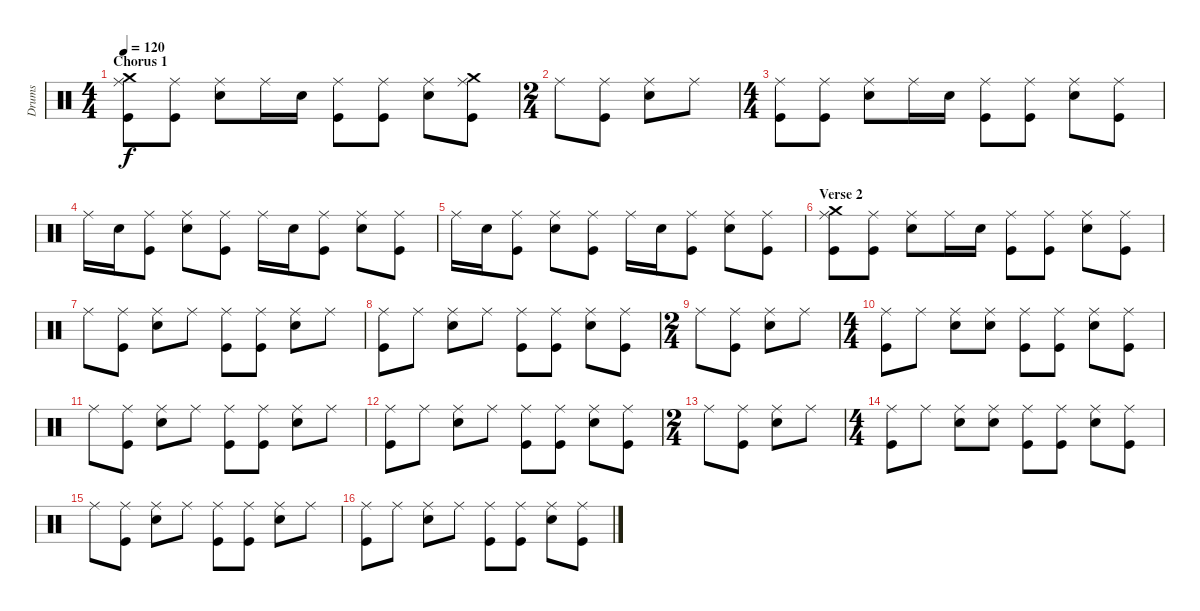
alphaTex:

\track ("Drums" "Drums") {instrument percussion}
\staff {score}
\articulation defaults
\ts (4 4)
\section ("" "Chorus 1")
\tempo 120
\clef neutral
\ks c
("Ride (middle)" "Crash medium (hit)" "Kick (hit)").8{dy f} ("Ride (middle)" "Kick (hit)").8 ("Ride (middle)" "Snare (hit) 2").8 "Ride (middle)".16 "Snare (hit) 2".16 ("Ride (middle)" "Kick (hit)").8 ("Ride (middle)" "Kick (hit)").8 ("Ride (middle)" "Snare (hit) 2").8 ("Ride (middle)" "Crash medium (hit)" "Kick (hit)").8 |
\ts (2 4)
"Ride (middle)".8 ("Ride (middle)" "Kick (hit)").8 ("Ride (middle)" "Snare (hit) 2").8 "Ride (middle)".8 |
\ts (4 4)
("Ride (middle)" "Kick (hit)").8 ("Ride (middle)" "Kick (hit)").8 ("Ride (middle)" "Snare (hit) 2").8 "Ride (middle)".16 "Snare (hit) 2".16 ("Ride (middle)" "Kick (hit)").8 ("Ride (middle)" "Kick (hit)").8 ("Ride (middle)" "Snare (hit) 2").8 ("Ride (middle)" "Kick (hit)").8 |
"Ride (middle)".16 "Snare (hit) 2".16 ("Ride (middle)" "Kick (hit)").8 ("Ride (middle)" "Snare (hit) 2").8 ("Ride (middle)" "Kick (hit)").8 "Ride (middle)".16 "Snare (hit) 2".16 ("Ride (middle)" "Kick (hit)").8 ("Ride (middle)" "Snare (hit) 2").8 ("Ride (middle)" "Kick (hit)").8 |
"Ride (middle)".16 "Snare (hit) 2".16 ("Ride (middle)" "Kick (hit)").8 ("Ride (middle)" "Snare (hit) 2").8 ("Ride (middle)" "Kick (hit)").8 "Ride (middle)".16 "Snare (hit) 2".16 ("Ride (middle)" "Kick (hit)").8 ("Ride (middle)" "Snare (hit) 2").8 ("Ride (middle)" "Kick (hit)").8 |
\section ("" "Verse 2")
("Ride (middle)" "Crash medium (hit)" "Kick (hit)").8 ("Ride (middle)" "Kick (hit)").8 ("Ride (middle)" "Snare (hit) 2").8 "Ride (middle)".16 "Snare (hit) 2".16 ("Ride (middle)" "Kick (hit)").8 ("Ride (middle)" "Kick (hit)").8 ("Ride (middle)" "Snare (hit) 2").8 ("Ride (middle)" "Kick (hit)").8 |
"Ride (middle)".8 ("Ride (middle)" "Kick (hit)").8 ("Ride (middle)" "Snare (hit) 2").8 "Ride (middle)".8 ("Ride (middle)" "Kick (hit)").8 ("Ride (middle)" "Kick (hit)").8 ("Ride (middle)" "Snare (hit) 2").8 "Ride (middle)".8 |
("Ride (middle)" "Kick (hit)").8 "Ride (middle)".8 ("Ride (middle)" "Snare (hit) 2").8 "Ride (middle)".8 ("Ride (middle)" "Kick (hit)").8 ("Ride (middle)" "Kick (hit)").8 ("Ride (middle)" "Snare (hit) 2").8 ("Ride (middle)" "Kick (hit)").8 |
\ts (2 4)
"Ride (middle)".8 ("Ride (middle)" "Kick (hit)").8 ("Ride (middle)" "Snare (hit) 2").8 "Ride (middle)".8 |
\ts (4 4)
("Ride (middle)" "Kick (hit)").8 "Ride (middle)".8 ("Ride (middle)" "Snare (hit) 2").8 ("Ride (middle)" "Snare (hit) 2").8 ("Ride (middle)" "Kick (hit)").8 ("Ride (middle)" "Kick (hit)").8 ("Ride (middle)" "Snare (hit) 2").8 ("Ride (middle)" "Kick (hit)").8 |
"Ride (middle)".8 ("Ride (middle)" "Kick (hit)").8 ("Ride (middle)" "Snare (hit) 2").8 "Ride (middle)".8 ("Ride (middle)" "Kick (hit)").8 ("Ride (middle)" "Kick (hit)").8 ("Ride (middle)" "Snare (hit) 2").8 "Ride (middle)".8 |
("Ride (middle)" "Kick (hit)").8 "Ride (middle)".8 ("Ride (middle)" "Snare (hit) 2").8 "Ride (middle)".8 ("Ride (middle)" "Kick (hit)").8 ("Ride (middle)" "Kick (hit)").8 ("Ride (middle)" "Snare (hit) 2").8 ("Ride (middle)" "Kick (hit)").8 |
\ts (2 4)
"Ride (middle)".8 ("Ride (middle)" "Kick (hit)").8 ("Ride (middle)" "Snare (hit) 2").8 "Ride (middle)".8 |
\ts (4 4)
("Ride (middle)" "Kick (hit)").8 "Ride (middle)".8 ("Ride (middle)" "Snare (hit) 2").8 ("Ride (middle)" "Snare (hit) 2").8 ("Ride (middle)" "Kick (hit)").8 ("Ride (middle)" "Kick (hit)").8 ("Ride (middle)" "Snare (hit) 2").8 ("Ride (middle)" "Kick (hit)").8 |
"Ride (middle)".8 ("Ride (middle)" "Kick (hit)").8 ("Ride (middle)" "Snare (hit) 2").8 "Ride (middle)".8 ("Ride (middle)" "Kick (hit)").8 ("Ride (middle)" "Kick (hit)").8 ("Ride (middle)" "Snare (hit) 2").8 "Ride (middle)".8 |
("Ride (middle)" "Kick (hit)").8 "Ride (middle)".8 ("Ride (middle)" "Snare (hit) 2").8 "Ride (middle)".8 ("Ride (middle)" "Kick (hit)").8 ("Ride (middle)" "Kick (hit)").8 ("Ride (middle)" "Snare (hit) 2").8 ("Ride (middle)" "Kick (hit)").8
